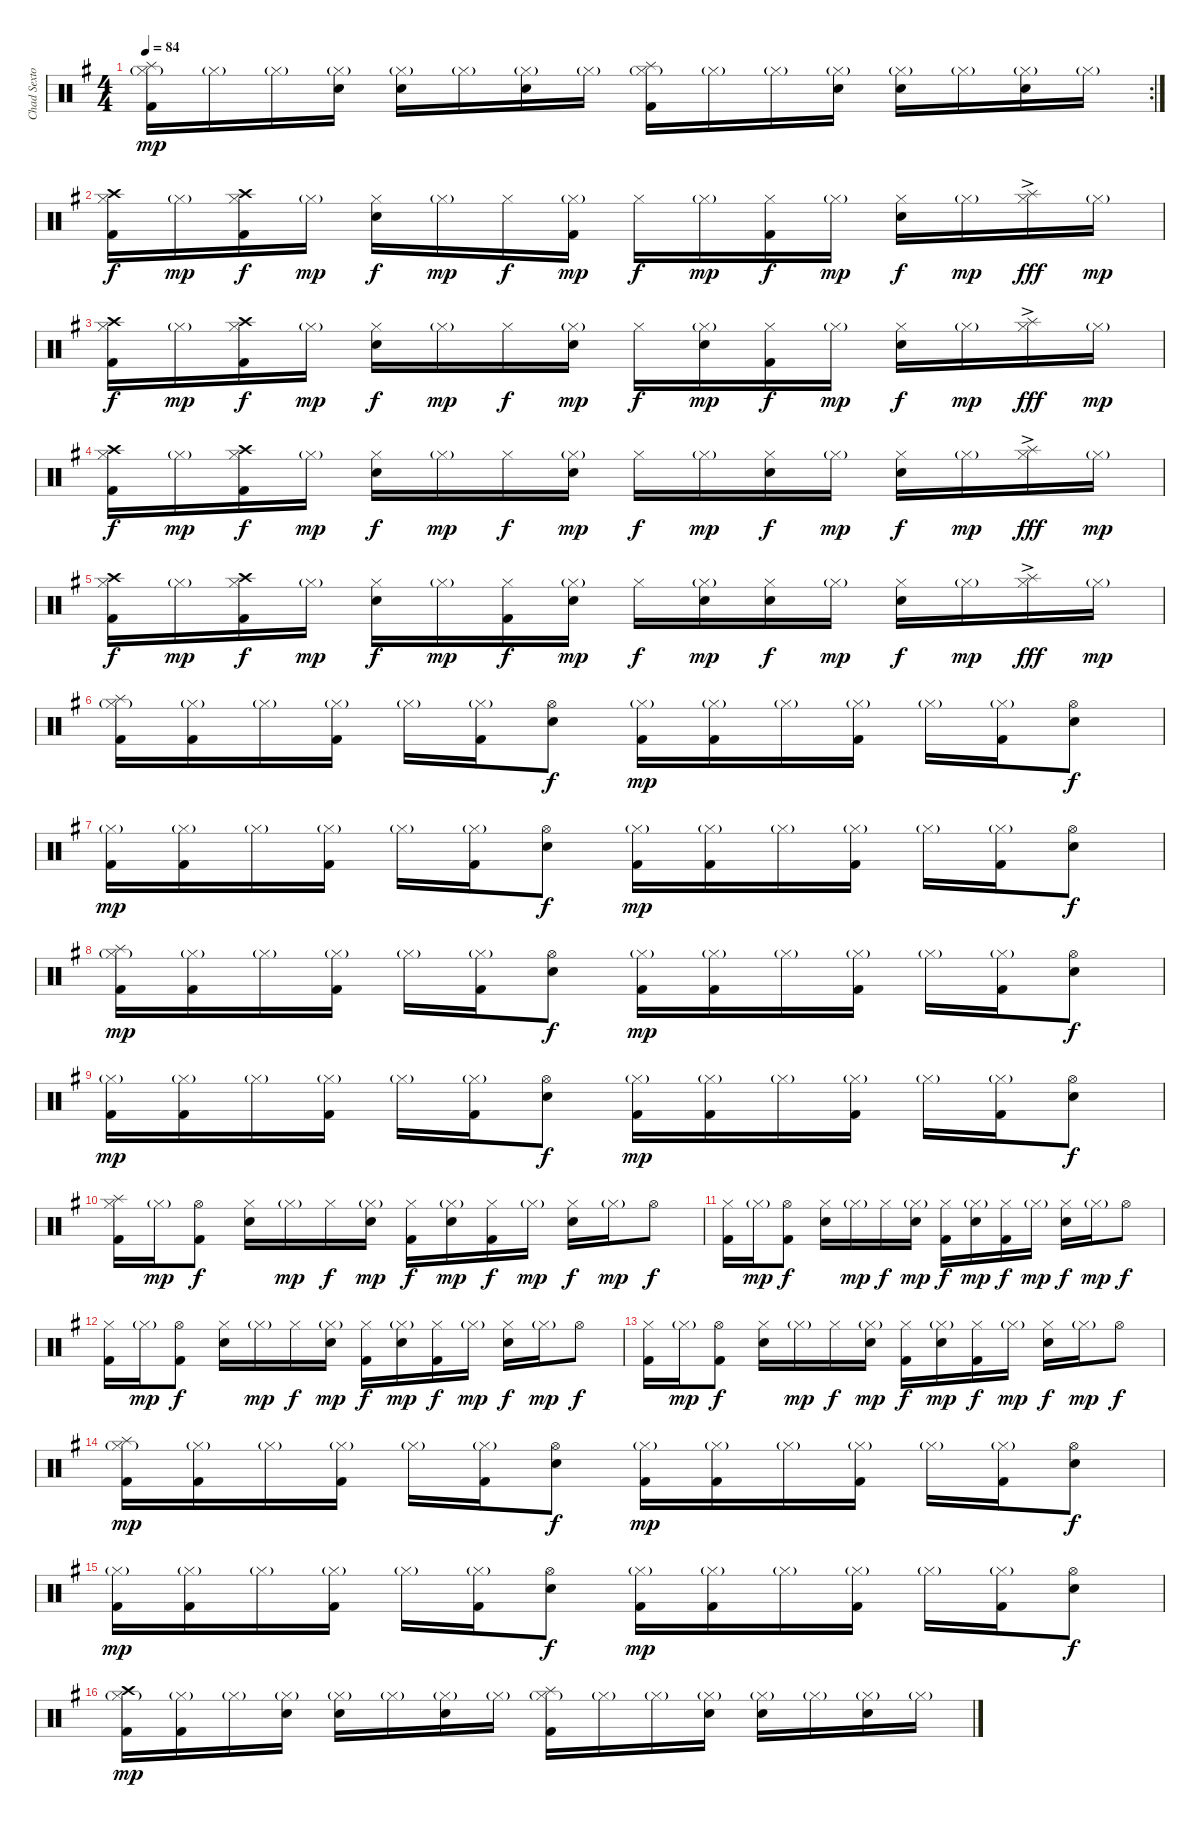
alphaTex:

\track ("Chad Sexton (Drums)" "Chad Sexto") {instrument percussion}
\staff {score}
\articulation defaults
\rc 2
\ts (4 4)
\tempo 84
\clef neutral
\ks g
("Splash (hit)" "Hi-Hat (closed)"{g} "Kick (hit) 2").16{dy mp} "Hi-Hat (closed)"{g}.16 "Hi-Hat (closed)"{g}.16 ("Hi-Hat (closed)"{g} "Electric Snare (hit)").16 ("Hi-Hat (closed)"{g} "Snare (hit) 2").16 "Hi-Hat (closed)"{g}.16 ("Hi-Hat (closed)"{g} "Electric Snare (hit)").16 "Hi-Hat (closed)"{g}.16 ("Splash (hit)" "Hi-Hat (closed)"{g} "Kick (hit) 2").16 "Hi-Hat (closed)"{g}.16 "Hi-Hat (closed)"{g}.16 ("Hi-Hat (closed)"{g} "Electric Snare (hit)").16 ("Hi-Hat (closed)"{g} "Snare (hit) 2").16 "Hi-Hat (closed)"{g}.16 ("Hi-Hat (closed)"{g} "Electric Snare (hit)").16 "Hi-Hat (closed)"{g}.16 |
("Crash high (hit)" "Hi-Hat (closed)" "Kick (hit) 2").16{dy f} "Hi-Hat (closed)"{g}.16{dy mp} ("Crash high (hit)" "Hi-Hat (closed)" "Kick (hit) 2").16{dy f} "Hi-Hat (closed)"{g}.16{dy mp} ("Hi-Hat (closed)" "Snare (hit) 2").16{dy f} "Hi-Hat (closed)"{g}.16{dy mp} "Hi-Hat (closed)".16{dy f} ("Hi-Hat (closed)"{g} "Kick (hit) 2").16{dy mp} "Hi-Hat (closed)".16{dy f} "Hi-Hat (closed)"{g}.16{dy mp} ("Hi-Hat (closed)" "Kick (hit) 2").16{dy f} "Hi-Hat (closed)"{g}.16{dy mp} ("Hi-Hat (closed)" "Snare (hit) 2").16{dy f} "Hi-Hat (closed)"{g}.16{dy mp} ("Splash (hit)"{ac} "Hi-Hat (closed)").16{dy fff} "Hi-Hat (closed)"{g}.16{dy mp} |
("Crash high (hit)" "Hi-Hat (closed)" "Kick (hit) 2").16{dy f} "Hi-Hat (closed)"{g}.16{dy mp} ("Crash high (hit)" "Hi-Hat (closed)" "Kick (hit) 2").16{dy f} "Hi-Hat (closed)"{g}.16{dy mp} ("Hi-Hat (closed)" "Snare (hit) 2").16{dy f} "Hi-Hat (closed)"{g}.16{dy mp} "Hi-Hat (closed)".16{dy f} ("Hi-Hat (closed)"{g} "Snare (hit) 2").16{dy mp} "Hi-Hat (closed)".16{dy f} ("Hi-Hat (closed)"{g} "Snare (hit) 2").16{dy mp} ("Hi-Hat (closed)" "Kick (hit) 2").16{dy f} "Hi-Hat (closed)"{g}.16{dy mp} ("Hi-Hat (closed)" "Snare (hit) 2").16{dy f} "Hi-Hat (closed)"{g}.16{dy mp} ("Splash (hit)"{ac} "Hi-Hat (closed)").16{dy fff} "Hi-Hat (closed)"{g}.16{dy mp} |
("Crash high (hit)" "Hi-Hat (closed)" "Kick (hit) 2").16{dy f} "Hi-Hat (closed)"{g}.16{dy mp} ("Crash high (hit)" "Hi-Hat (closed)" "Kick (hit) 2").16{dy f} "Hi-Hat (closed)"{g}.16{dy mp} ("Hi-Hat (closed)" "Snare (hit) 2").16{dy f} "Hi-Hat (closed)"{g}.16{dy mp} "Hi-Hat (closed)".16{dy f} ("Hi-Hat (closed)"{g} "Snare (hit) 2").16{dy mp} "Hi-Hat (closed)".16{dy f} "Hi-Hat (closed)"{g}.16{dy mp} ("Hi-Hat (closed)" "Snare (hit) 2").16{dy f} "Hi-Hat (closed)"{g}.16{dy mp} ("Hi-Hat (closed)" "Snare (hit) 2").16{dy f} "Hi-Hat (closed)"{g}.16{dy mp} ("Splash (hit)"{ac} "Hi-Hat (closed)").16{dy fff} "Hi-Hat (closed)"{g}.16{dy mp} |
("Crash high (hit)" "Hi-Hat (closed)" "Kick (hit) 2").16{dy f} "Hi-Hat (closed)"{g}.16{dy mp} ("Crash high (hit)" "Hi-Hat (closed)" "Kick (hit) 2").16{dy f} "Hi-Hat (closed)"{g}.16{dy mp} ("Hi-Hat (closed)" "Snare (hit) 2").16{dy f} "Hi-Hat (closed)"{g}.16{dy mp} ("Hi-Hat (closed)" "Kick (hit) 2").16{dy f} ("Hi-Hat (closed)"{g} "Snare (hit) 2").16{dy mp} "Hi-Hat (closed)".16{dy f} ("Hi-Hat (closed)"{g} "Snare (hit) 2").16{dy mp} ("Hi-Hat (closed)" "Snare (hit) 2").16{dy f} "Hi-Hat (closed)"{g}.16{dy mp} ("Hi-Hat (closed)" "Snare (hit) 2").16{dy f} "Hi-Hat (closed)"{g}.16{dy mp} ("Splash (hit)"{ac} "Hi-Hat (closed)").16{dy fff} "Hi-Hat (closed)"{g}.16{dy mp} |
("Splash (hit)" "Hi-Hat (closed)"{g} "Kick (hit) 2").16 ("Hi-Hat (closed)"{g} "Kick (hit) 2").16 "Hi-Hat (closed)"{g}.16 ("Hi-Hat (closed)"{g} "Kick (hit) 2").16 "Hi-Hat (closed)"{g}.16 ("Hi-Hat (closed)"{g} "Kick (hit) 2").16 ("Hi-Hat (open)" "Snare (hit) 2").8{dy f} ("Hi-Hat (closed)"{g} "Kick (hit) 2").16{dy mp} ("Hi-Hat (closed)"{g} "Kick (hit) 2").16 "Hi-Hat (closed)"{g}.16 ("Hi-Hat (closed)"{g} "Kick (hit) 2").16 "Hi-Hat (closed)"{g}.16 ("Hi-Hat (closed)"{g} "Kick (hit) 2").16 ("Hi-Hat (open)" "Snare (hit) 2").8{dy f} |
("Hi-Hat (closed)"{g} "Kick (hit) 2").16{dy mp} ("Hi-Hat (closed)"{g} "Kick (hit) 2").16 "Hi-Hat (closed)"{g}.16 ("Hi-Hat (closed)"{g} "Kick (hit) 2").16 "Hi-Hat (closed)"{g}.16 ("Hi-Hat (closed)"{g} "Kick (hit) 2").16 ("Hi-Hat (open)" "Snare (hit) 2").8{dy f} ("Hi-Hat (closed)"{g} "Kick (hit) 2").16{dy mp} ("Hi-Hat (closed)"{g} "Kick (hit) 2").16 "Hi-Hat (closed)"{g}.16 ("Hi-Hat (closed)"{g} "Kick (hit) 2").16 "Hi-Hat (closed)"{g}.16 ("Hi-Hat (closed)"{g} "Kick (hit) 2").16 ("Hi-Hat (open)" "Snare (hit) 2").8{dy f} |
("Splash (hit)" "Hi-Hat (closed)"{g} "Kick (hit) 2").16{dy mp} ("Hi-Hat (closed)"{g} "Kick (hit) 2").16 "Hi-Hat (closed)"{g}.16 ("Hi-Hat (closed)"{g} "Kick (hit) 2").16 "Hi-Hat (closed)"{g}.16 ("Hi-Hat (closed)"{g} "Kick (hit) 2").16 ("Hi-Hat (open)" "Snare (hit) 2").8{dy f} ("Hi-Hat (closed)"{g} "Kick (hit) 2").16{dy mp} ("Hi-Hat (closed)"{g} "Kick (hit) 2").16 "Hi-Hat (closed)"{g}.16 ("Hi-Hat (closed)"{g} "Kick (hit) 2").16 "Hi-Hat (closed)"{g}.16 ("Hi-Hat (closed)"{g} "Kick (hit) 2").16 ("Hi-Hat (open)" "Snare (hit) 2").8{dy f} |
("Hi-Hat (closed)"{g} "Kick (hit) 2").16{dy mp} ("Hi-Hat (closed)"{g} "Kick (hit) 2").16 "Hi-Hat (closed)"{g}.16 ("Hi-Hat (closed)"{g} "Kick (hit) 2").16 "Hi-Hat (closed)"{g}.16 ("Hi-Hat (closed)"{g} "Kick (hit) 2").16 ("Hi-Hat (open)" "Snare (hit) 2").8{dy f} ("Hi-Hat (closed)"{g} "Kick (hit) 2").16{dy mp} ("Hi-Hat (closed)"{g} "Kick (hit) 2").16 "Hi-Hat (closed)"{g}.16 ("Hi-Hat (closed)"{g} "Kick (hit) 2").16 "Hi-Hat (closed)"{g}.16 ("Hi-Hat (closed)"{g} "Kick (hit) 2").16 ("Hi-Hat (open)" "Snare (hit) 2").8{dy f} |
("Splash (hit)" "Hi-Hat (closed)" "Kick (hit) 2").16 "Hi-Hat (closed)"{g}.16{dy mp} ("Hi-Hat (open)" "Kick (hit) 2").8{dy f} ("Hi-Hat (closed)" "Snare (hit) 2").16 "Hi-Hat (closed)"{g}.16{dy mp} "Hi-Hat (closed)".16{dy f} ("Hi-Hat (closed)"{g} "Snare (hit) 2").16{dy mp} ("Hi-Hat (closed)" "Kick (hit) 2").16{dy f} ("Hi-Hat (closed)"{g} "Snare (hit) 2").16{dy mp} ("Hi-Hat (closed)" "Kick (hit) 2").16{dy f} "Hi-Hat (closed)"{g}.16{dy mp} ("Hi-Hat (closed)" "Snare (hit) 2").16{dy f} "Hi-Hat (closed)"{g}.16{dy mp} "Hi-Hat (open)".8{dy f} |
("Hi-Hat (closed)" "Kick (hit) 2").16 "Hi-Hat (closed)"{g}.16{dy mp} ("Hi-Hat (open)" "Kick (hit) 2").8{dy f} ("Hi-Hat (closed)" "Snare (hit) 2").16 "Hi-Hat (closed)"{g}.16{dy mp} "Hi-Hat (closed)".16{dy f} ("Hi-Hat (closed)"{g} "Snare (hit) 2").16{dy mp} ("Hi-Hat (closed)" "Kick (hit) 2").16{dy f} ("Hi-Hat (closed)"{g} "Snare (hit) 2").16{dy mp} ("Hi-Hat (closed)" "Kick (hit) 2").16{dy f} "Hi-Hat (closed)"{g}.16{dy mp} ("Hi-Hat (closed)" "Snare (hit) 2").16{dy f} "Hi-Hat (closed)"{g}.16{dy mp} "Hi-Hat (open)".8{dy f} |
("Hi-Hat (closed)" "Kick (hit) 2").16 "Hi-Hat (closed)"{g}.16{dy mp} ("Hi-Hat (open)" "Kick (hit) 2").8{dy f} ("Hi-Hat (closed)" "Snare (hit) 2").16 "Hi-Hat (closed)"{g}.16{dy mp} "Hi-Hat (closed)".16{dy f} ("Hi-Hat (closed)"{g} "Snare (hit) 2").16{dy mp} ("Hi-Hat (closed)" "Kick (hit) 2").16{dy f} ("Hi-Hat (closed)"{g} "Snare (hit) 2").16{dy mp} ("Hi-Hat (closed)" "Kick (hit) 2").16{dy f} "Hi-Hat (closed)"{g}.16{dy mp} ("Hi-Hat (closed)" "Snare (hit) 2").16{dy f} "Hi-Hat (closed)"{g}.16{dy mp} "Hi-Hat (open)".8{dy f} |
("Hi-Hat (closed)" "Kick (hit) 2").16 "Hi-Hat (closed)"{g}.16{dy mp} ("Hi-Hat (open)" "Kick (hit) 2").8{dy f} ("Hi-Hat (closed)" "Snare (hit) 2").16 "Hi-Hat (closed)"{g}.16{dy mp} "Hi-Hat (closed)".16{dy f} ("Hi-Hat (closed)"{g} "Snare (hit) 2").16{dy mp} ("Hi-Hat (closed)" "Kick (hit) 2").16{dy f} ("Hi-Hat (closed)"{g} "Snare (hit) 2").16{dy mp} ("Hi-Hat (closed)" "Kick (hit) 2").16{dy f} "Hi-Hat (closed)"{g}.16{dy mp} ("Hi-Hat (closed)" "Snare (hit) 2").16{dy f} "Hi-Hat (closed)"{g}.16{dy mp} "Hi-Hat (open)".8{dy f} |
("Splash (hit)" "Hi-Hat (closed)"{g} "Kick (hit) 2").16{dy mp} ("Hi-Hat (closed)"{g} "Kick (hit) 2").16 "Hi-Hat (closed)"{g}.16 ("Hi-Hat (closed)"{g} "Kick (hit) 2").16 "Hi-Hat (closed)"{g}.16 ("Hi-Hat (closed)"{g} "Kick (hit) 2").16 ("Hi-Hat (open)" "Snare (hit) 2").8{dy f} ("Hi-Hat (closed)"{g} "Kick (hit) 2").16{dy mp} ("Hi-Hat (closed)"{g} "Kick (hit) 2").16 "Hi-Hat (closed)"{g}.16 ("Hi-Hat (closed)"{g} "Kick (hit) 2").16 "Hi-Hat (closed)"{g}.16 ("Hi-Hat (closed)"{g} "Kick (hit) 2").16 ("Hi-Hat (open)" "Snare (hit) 2").8{dy f} |
("Hi-Hat (closed)"{g} "Kick (hit) 2").16{dy mp} ("Hi-Hat (closed)"{g} "Kick (hit) 2").16 "Hi-Hat (closed)"{g}.16 ("Hi-Hat (closed)"{g} "Kick (hit) 2").16 "Hi-Hat (closed)"{g}.16 ("Hi-Hat (closed)"{g} "Kick (hit) 2").16 ("Hi-Hat (open)" "Snare (hit) 2").8{dy f} ("Hi-Hat (closed)"{g} "Kick (hit) 2").16{dy mp} ("Hi-Hat (closed)"{g} "Kick (hit) 2").16 "Hi-Hat (closed)"{g}.16 ("Hi-Hat (closed)"{g} "Kick (hit) 2").16 "Hi-Hat (closed)"{g}.16 ("Hi-Hat (closed)"{g} "Kick (hit) 2").16 ("Hi-Hat (open)" "Snare (hit) 2").8{dy f} |
("Crash high (hit)" "Hi-Hat (closed)"{g} "Kick (hit) 2").16{dy mp} ("Hi-Hat (closed)"{g} "Kick (hit) 2").16 "Hi-Hat (closed)"{g}.16 ("Hi-Hat (closed)"{g} "Electric Snare (hit)").16 ("Hi-Hat (closed)"{g} "Snare (hit) 2").16 "Hi-Hat (closed)"{g}.16 ("Hi-Hat (closed)"{g} "Electric Snare (hit)").16 "Hi-Hat (closed)"{g}.16 ("Splash (hit)" "Hi-Hat (closed)"{g} "Kick (hit) 2").16 "Hi-Hat (closed)"{g}.16 "Hi-Hat (closed)"{g}.16 ("Hi-Hat (closed)"{g} "Electric Snare (hit)").16 ("Hi-Hat (closed)"{g} "Snare (hit) 2").16 "Hi-Hat (closed)"{g}.16 ("Hi-Hat (closed)"{g} "Electric Snare (hit)").16 "Hi-Hat (closed)"{g}.16
